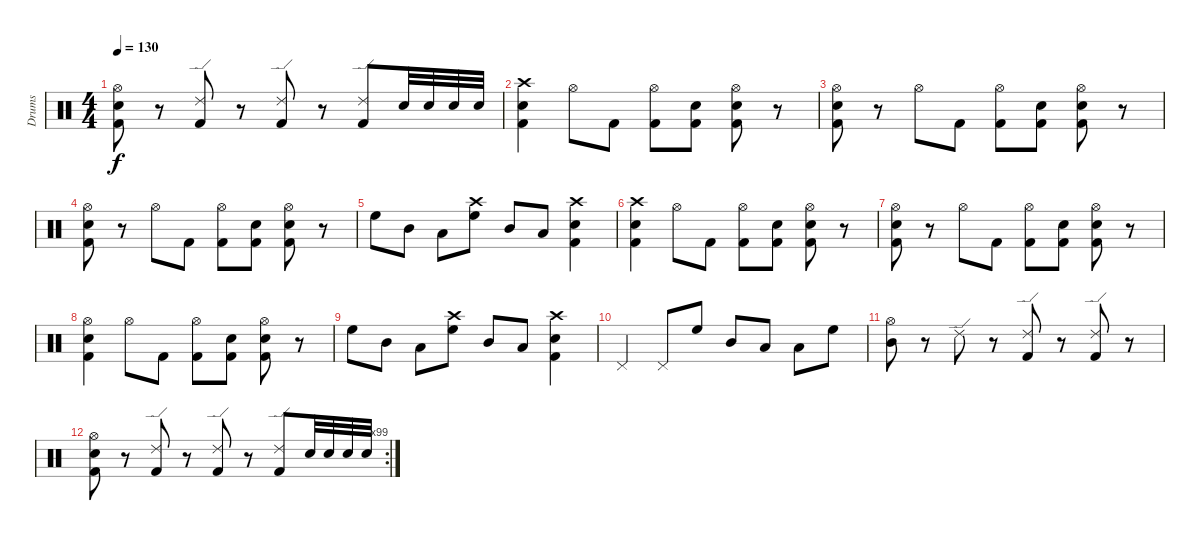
\track ("Drums" "Drums") {instrument percussion}
\staff {score}
\articulation defaults
\ts (4 4)
\tempo 130
\clef neutral
\ks c
("Hi-Hat (open)" "Electric Snare (hit)" "Kick (hit) 2").8{dy f} r.8 ("Ride (edge) 2" "Kick (hit) 2").8 r.8 ("Ride (edge) 2" "Kick (hit) 2").8 r.8 ("Ride (edge) 2" "Kick (hit) 2").8 "Electric Snare (hit)".32 "Snare (hit) 2".32 "Electric Snare (hit)".32 "Snare (hit) 2".32 |
("Crash high (hit)" "Electric Snare (hit)" "Kick (hit) 2").4 "Hi-Hat (open)".8 "Kick (hit) 2".8 ("Hi-Hat (open)" "Kick (hit) 2").8 ("Electric Snare (hit)" "Kick (hit) 2").8 ("Hi-Hat (open)" "Electric Snare (hit)" "Kick (hit) 2").8 r.8 |
("Hi-Hat (open)" "Electric Snare (hit)" "Kick (hit) 2").8 r.8 "Hi-Hat (open)".8 "Kick (hit) 2".8 ("Hi-Hat (open)" "Kick (hit) 2").8 ("Electric Snare (hit)" "Kick (hit) 2").8 ("Hi-Hat (open)" "Electric Snare (hit)" "Kick (hit) 2").8 r.8 |
("Hi-Hat (open)" "Electric Snare (hit)" "Kick (hit) 2").8 r.8 "Hi-Hat (open)".8 "Kick (hit) 2".8 ("Hi-Hat (open)" "Kick (hit) 2").8 ("Electric Snare (hit)" "Kick (hit) 2").8 ("Hi-Hat (open)" "Electric Snare (hit)" "Kick (hit) 2").8 r.8 |
"High Floor Tom (hit)".8 "Mid Tom (hit)".8 "Low Tom (hit)".8 ("Crash high (hit)" "High Floor Tom (hit)").8 "Mid Tom (hit)".8 "Low Tom (hit)".8 ("Crash high (hit)" "Electric Snare (hit)" "Kick (hit) 2").4 |
("Crash high (hit)" "Electric Snare (hit)" "Kick (hit) 2").4 "Hi-Hat (open)".8 "Kick (hit) 2".8 ("Hi-Hat (open)" "Kick (hit) 2").8 ("Electric Snare (hit)" "Kick (hit) 2").8 ("Hi-Hat (open)" "Electric Snare (hit)" "Kick (hit) 2").8 r.8 |
("Hi-Hat (open)" "Electric Snare (hit)" "Kick (hit) 2").8 r.8 "Hi-Hat (open)".8 "Kick (hit) 2".8 ("Hi-Hat (open)" "Kick (hit) 2").8 ("Electric Snare (hit)" "Kick (hit) 2").8 ("Hi-Hat (open)" "Electric Snare (hit)" "Kick (hit) 2").8 r.8 |
("Hi-Hat (open)" "Electric Snare (hit)" "Kick (hit) 2").4 "Hi-Hat (open)".8 "Kick (hit) 2".8 ("Hi-Hat (open)" "Kick (hit) 2").8 ("Electric Snare (hit)" "Kick (hit) 2").8 ("Hi-Hat (open)" "Electric Snare (hit)" "Kick (hit) 2").8 r.8 |
"High Floor Tom (hit)".8 "Mid Tom (hit)".8 "Low Tom (hit)".8 ("Crash high (hit)" "High Floor Tom (hit)").8 "Mid Tom (hit)".8 "Low Tom (hit)".8 ("Crash high (hit)" "Electric Snare (hit)" "Kick (hit) 2").4 |
"Pedal Hi-Hat (hit)".4 "Pedal Hi-Hat (hit)".8 "High Floor Tom (hit)".8 "Mid Tom (hit)".8 "Low Tom (hit)".8 "Low Floor Tom (hit)".8 "High Floor Tom (hit)".8 |
("Hi-Hat (open)" "Mid Tom (hit)").8 r.8 "Ride (edge) 2".8 r.8 ("Ride (edge) 2" "Kick (hit) 2").8 r.8 ("Ride (edge) 2" "Kick (hit) 2").8 r.8 |
\rc 99
("Hi-Hat (open)" "Electric Snare (hit)" "Kick (hit) 2").8 r.8 ("Ride (edge) 2" "Kick (hit) 2").8 r.8 ("Ride (edge) 2" "Kick (hit) 2").8 r.8 ("Ride (edge) 2" "Kick (hit) 2").8 "Electric Snare (hit)".32 "Snare (hit) 2".32 "Electric Snare (hit)".32 "Snare (hit) 2".32
